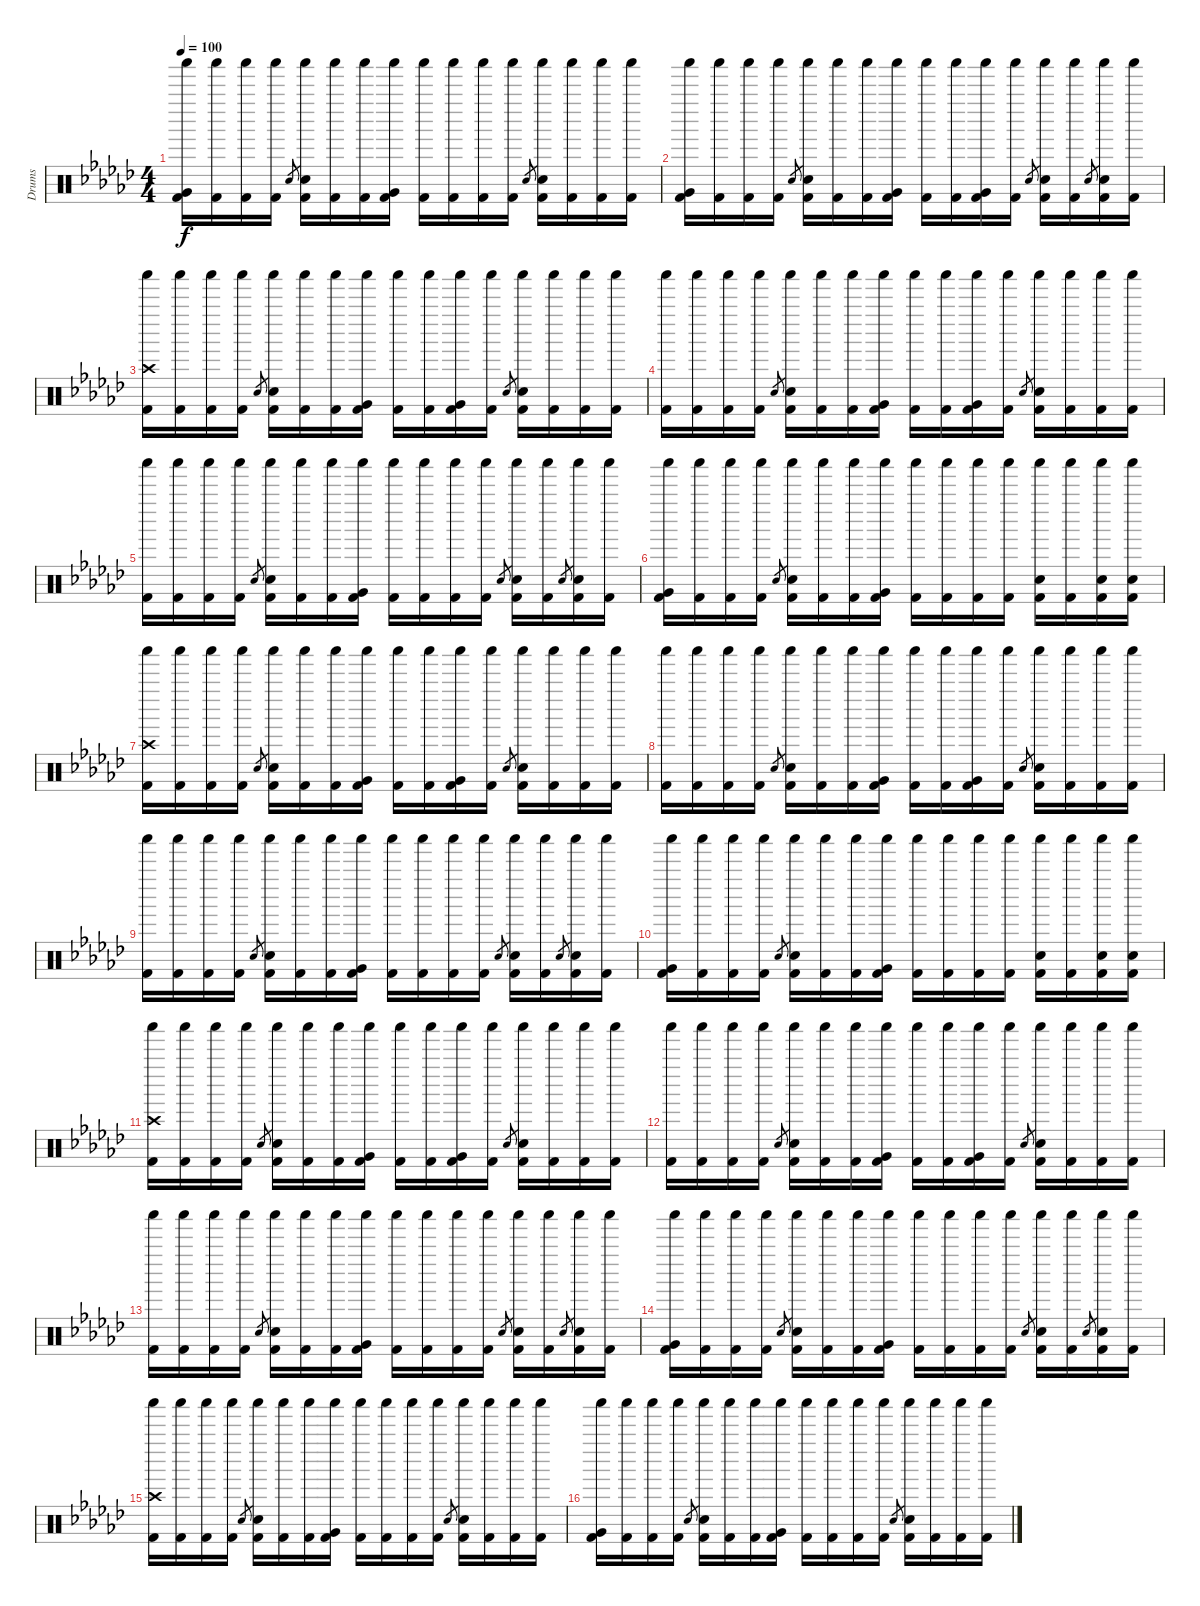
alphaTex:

\track ("Drums" "Drums") {instrument percussion}
\staff {score}
\articulation defaults
\ts (4 4)
\tempo 100
\clef neutral
\ks gb
("Shaker (hit)" "Very Low Tom (hit)" "Kick (hit) 2").16{dy f} ("Shaker (hit)" "Kick (hit) 2").16 ("Shaker (hit)" "Kick (hit) 2").16 ("Shaker (hit)" "Kick (hit) 2").16 "Electric Snare (hit)".8{gr} ("Shaker (hit)" "Electric Snare (hit)" "Kick (hit) 2").16 ("Shaker (hit)" "Kick (hit) 2").16 ("Shaker (hit)" "Kick (hit) 2").16 ("Shaker (hit)" "Very Low Tom (hit)" "Kick (hit) 2").16 ("Shaker (hit)" "Kick (hit) 2").16 ("Shaker (hit)" "Kick (hit) 2").16 ("Shaker (hit)" "Kick (hit) 2").16 ("Shaker (hit)" "Kick (hit) 2").16 "Electric Snare (hit)".8{gr} ("Shaker (hit)" "Electric Snare (hit)" "Kick (hit) 2").16 ("Shaker (hit)" "Kick (hit) 2").16 ("Shaker (hit)" "Kick (hit) 2").16 ("Shaker (hit)" "Kick (hit) 2").16 |
("Shaker (hit)" "Very Low Tom (hit)" "Kick (hit) 2").16 ("Shaker (hit)" "Kick (hit) 2").16 ("Shaker (hit)" "Kick (hit) 2").16 ("Shaker (hit)" "Kick (hit) 2").16 "Electric Snare (hit)".8{gr} ("Shaker (hit)" "Electric Snare (hit)" "Kick (hit) 2").16 ("Shaker (hit)" "Kick (hit) 2").16 ("Shaker (hit)" "Kick (hit) 2").16 ("Shaker (hit)" "Very Low Tom (hit)" "Kick (hit) 2").16 ("Shaker (hit)" "Kick (hit) 2").16 ("Shaker (hit)" "Kick (hit) 2").16 ("Shaker (hit)" "Very Low Tom (hit)" "Kick (hit) 2").16 ("Shaker (hit)" "Kick (hit) 2").16 "Electric Snare (hit)".8{gr} ("Shaker (hit)" "Electric Snare (hit)" "Kick (hit) 2").16 ("Shaker (hit)" "Kick (hit) 2").16 "Electric Snare (hit)".8{gr} ("Shaker (hit)" "Electric Snare (hit)" "Kick (hit) 2").16 ("Shaker (hit)" "Kick (hit) 2").16 |
("Crash high (hit)" "Shaker (hit)" "Kick (hit) 2").16 ("Shaker (hit)" "Kick (hit) 2").16 ("Shaker (hit)" "Kick (hit) 2").16 ("Shaker (hit)" "Kick (hit) 2").16 "Electric Snare (hit)".8{gr} ("Shaker (hit)" "Electric Snare (hit)" "Kick (hit) 2").16 ("Shaker (hit)" "Kick (hit) 2").16 ("Shaker (hit)" "Kick (hit) 2").16 ("Shaker (hit)" "Very Low Tom (hit)" "Kick (hit) 2").16 ("Shaker (hit)" "Kick (hit) 2").16 ("Shaker (hit)" "Kick (hit) 2").16 ("Shaker (hit)" "Very Low Tom (hit)" "Kick (hit) 2").16 ("Shaker (hit)" "Kick (hit) 2").16 "Electric Snare (hit)".8{gr} ("Shaker (hit)" "Electric Snare (hit)" "Kick (hit) 2").16 ("Shaker (hit)" "Kick (hit) 2").16 ("Shaker (hit)" "Kick (hit) 2").16 ("Shaker (hit)" "Kick (hit) 2").16 |
("Shaker (hit)" "Kick (hit) 2").16 ("Shaker (hit)" "Kick (hit) 2").16 ("Shaker (hit)" "Kick (hit) 2").16 ("Shaker (hit)" "Kick (hit) 2").16 "Electric Snare (hit)".8{gr} ("Shaker (hit)" "Electric Snare (hit)" "Kick (hit) 2").16 ("Shaker (hit)" "Kick (hit) 2").16 ("Shaker (hit)" "Kick (hit) 2").16 ("Shaker (hit)" "Very Low Tom (hit)" "Kick (hit) 2").16 ("Shaker (hit)" "Kick (hit) 2").16 ("Shaker (hit)" "Kick (hit) 2").16 ("Shaker (hit)" "Very Low Tom (hit)" "Kick (hit) 2").16 ("Shaker (hit)" "Kick (hit) 2").16 "Electric Snare (hit)".8{gr} ("Shaker (hit)" "Electric Snare (hit)" "Kick (hit) 2").16 ("Shaker (hit)" "Kick (hit) 2").16 ("Shaker (hit)" "Kick (hit) 2").16 ("Shaker (hit)" "Kick (hit) 2").16 |
("Shaker (hit)" "Kick (hit) 2").16 ("Shaker (hit)" "Kick (hit) 2").16 ("Shaker (hit)" "Kick (hit) 2").16 ("Shaker (hit)" "Kick (hit) 2").16 "Electric Snare (hit)".8{gr} ("Shaker (hit)" "Electric Snare (hit)" "Kick (hit) 2").16 ("Shaker (hit)" "Kick (hit) 2").16 ("Shaker (hit)" "Kick (hit) 2").16 ("Shaker (hit)" "Very Low Tom (hit)" "Kick (hit) 2").16 ("Shaker (hit)" "Kick (hit) 2").16 ("Shaker (hit)" "Kick (hit) 2").16 ("Shaker (hit)" "Kick (hit) 2").16 ("Shaker (hit)" "Kick (hit) 2").16 "Electric Snare (hit)".8{gr} ("Shaker (hit)" "Electric Snare (hit)" "Kick (hit) 2").16 ("Shaker (hit)" "Kick (hit) 2").16 "Electric Snare (hit)".8{gr} ("Shaker (hit)" "Electric Snare (hit)" "Kick (hit) 2").16 ("Shaker (hit)" "Kick (hit) 2").16 |
("Shaker (hit)" "Very Low Tom (hit)" "Kick (hit) 2").16 ("Shaker (hit)" "Kick (hit) 2").16 ("Shaker (hit)" "Kick (hit) 2").16 ("Shaker (hit)" "Kick (hit) 2").16 "Electric Snare (hit)".8{gr} ("Shaker (hit)" "Electric Snare (hit)" "Kick (hit) 2").16 ("Shaker (hit)" "Kick (hit) 2").16 ("Shaker (hit)" "Kick (hit) 2").16 ("Shaker (hit)" "Very Low Tom (hit)" "Kick (hit) 2").16 ("Shaker (hit)" "Kick (hit) 2").16 ("Shaker (hit)" "Kick (hit) 2").16 ("Shaker (hit)" "Kick (hit) 2").16 ("Shaker (hit)" "Kick (hit) 2").16 ("Shaker (hit)" "Electric Snare (hit)" "Kick (hit) 2").16 ("Shaker (hit)" "Kick (hit) 2").16 ("Shaker (hit)" "Electric Snare (hit)" "Kick (hit) 2").16 ("Shaker (hit)" "Electric Snare (hit)" "Kick (hit) 2").16 |
("Crash high (hit)" "Shaker (hit)" "Kick (hit) 2").16 ("Shaker (hit)" "Kick (hit) 2").16 ("Shaker (hit)" "Kick (hit) 2").16 ("Shaker (hit)" "Kick (hit) 2").16 "Electric Snare (hit)".8{gr} ("Shaker (hit)" "Electric Snare (hit)" "Kick (hit) 2").16 ("Shaker (hit)" "Kick (hit) 2").16 ("Shaker (hit)" "Kick (hit) 2").16 ("Shaker (hit)" "Very Low Tom (hit)" "Kick (hit) 2").16 ("Shaker (hit)" "Kick (hit) 2").16 ("Shaker (hit)" "Kick (hit) 2").16 ("Shaker (hit)" "Very Low Tom (hit)" "Kick (hit) 2").16 ("Shaker (hit)" "Kick (hit) 2").16 "Electric Snare (hit)".8{gr} ("Shaker (hit)" "Electric Snare (hit)" "Kick (hit) 2").16 ("Shaker (hit)" "Kick (hit) 2").16 ("Shaker (hit)" "Kick (hit) 2").16 ("Shaker (hit)" "Kick (hit) 2").16 |
("Shaker (hit)" "Kick (hit) 2").16 ("Shaker (hit)" "Kick (hit) 2").16 ("Shaker (hit)" "Kick (hit) 2").16 ("Shaker (hit)" "Kick (hit) 2").16 "Electric Snare (hit)".8{gr} ("Shaker (hit)" "Electric Snare (hit)" "Kick (hit) 2").16 ("Shaker (hit)" "Kick (hit) 2").16 ("Shaker (hit)" "Kick (hit) 2").16 ("Shaker (hit)" "Very Low Tom (hit)" "Kick (hit) 2").16 ("Shaker (hit)" "Kick (hit) 2").16 ("Shaker (hit)" "Kick (hit) 2").16 ("Shaker (hit)" "Very Low Tom (hit)" "Kick (hit) 2").16 ("Shaker (hit)" "Kick (hit) 2").16 "Electric Snare (hit)".8{gr} ("Shaker (hit)" "Electric Snare (hit)" "Kick (hit) 2").16 ("Shaker (hit)" "Kick (hit) 2").16 ("Shaker (hit)" "Kick (hit) 2").16 ("Shaker (hit)" "Kick (hit) 2").16 |
("Shaker (hit)" "Kick (hit) 2").16 ("Shaker (hit)" "Kick (hit) 2").16 ("Shaker (hit)" "Kick (hit) 2").16 ("Shaker (hit)" "Kick (hit) 2").16 "Electric Snare (hit)".8{gr} ("Shaker (hit)" "Electric Snare (hit)" "Kick (hit) 2").16 ("Shaker (hit)" "Kick (hit) 2").16 ("Shaker (hit)" "Kick (hit) 2").16 ("Shaker (hit)" "Very Low Tom (hit)" "Kick (hit) 2").16 ("Shaker (hit)" "Kick (hit) 2").16 ("Shaker (hit)" "Kick (hit) 2").16 ("Shaker (hit)" "Kick (hit) 2").16 ("Shaker (hit)" "Kick (hit) 2").16 "Electric Snare (hit)".8{gr} ("Shaker (hit)" "Electric Snare (hit)" "Kick (hit) 2").16 ("Shaker (hit)" "Kick (hit) 2").16 "Electric Snare (hit)".8{gr} ("Shaker (hit)" "Electric Snare (hit)" "Kick (hit) 2").16 ("Shaker (hit)" "Kick (hit) 2").16 |
("Shaker (hit)" "Very Low Tom (hit)" "Kick (hit) 2").16 ("Shaker (hit)" "Kick (hit) 2").16 ("Shaker (hit)" "Kick (hit) 2").16 ("Shaker (hit)" "Kick (hit) 2").16 "Electric Snare (hit)".8{gr} ("Shaker (hit)" "Electric Snare (hit)" "Kick (hit) 2").16 ("Shaker (hit)" "Kick (hit) 2").16 ("Shaker (hit)" "Kick (hit) 2").16 ("Shaker (hit)" "Very Low Tom (hit)" "Kick (hit) 2").16 ("Shaker (hit)" "Kick (hit) 2").16 ("Shaker (hit)" "Kick (hit) 2").16 ("Shaker (hit)" "Kick (hit) 2").16 ("Shaker (hit)" "Kick (hit) 2").16 ("Shaker (hit)" "Electric Snare (hit)" "Kick (hit) 2").16 ("Shaker (hit)" "Kick (hit) 2").16 ("Shaker (hit)" "Electric Snare (hit)" "Kick (hit) 2").16 ("Shaker (hit)" "Electric Snare (hit)" "Kick (hit) 2").16 |
("Crash high (hit)" "Shaker (hit)" "Kick (hit) 2").16 ("Shaker (hit)" "Kick (hit) 2").16 ("Shaker (hit)" "Kick (hit) 2").16 ("Shaker (hit)" "Kick (hit) 2").16 "Electric Snare (hit)".8{gr} ("Shaker (hit)" "Electric Snare (hit)" "Kick (hit) 2").16 ("Shaker (hit)" "Kick (hit) 2").16 ("Shaker (hit)" "Kick (hit) 2").16 ("Shaker (hit)" "Very Low Tom (hit)" "Kick (hit) 2").16 ("Shaker (hit)" "Kick (hit) 2").16 ("Shaker (hit)" "Kick (hit) 2").16 ("Shaker (hit)" "Very Low Tom (hit)" "Kick (hit) 2").16 ("Shaker (hit)" "Kick (hit) 2").16 "Electric Snare (hit)".8{gr} ("Shaker (hit)" "Electric Snare (hit)" "Kick (hit) 2").16 ("Shaker (hit)" "Kick (hit) 2").16 ("Shaker (hit)" "Kick (hit) 2").16 ("Shaker (hit)" "Kick (hit) 2").16 |
("Shaker (hit)" "Kick (hit) 2").16 ("Shaker (hit)" "Kick (hit) 2").16 ("Shaker (hit)" "Kick (hit) 2").16 ("Shaker (hit)" "Kick (hit) 2").16 "Electric Snare (hit)".8{gr} ("Shaker (hit)" "Electric Snare (hit)" "Kick (hit) 2").16 ("Shaker (hit)" "Kick (hit) 2").16 ("Shaker (hit)" "Kick (hit) 2").16 ("Shaker (hit)" "Very Low Tom (hit)" "Kick (hit) 2").16 ("Shaker (hit)" "Kick (hit) 2").16 ("Shaker (hit)" "Kick (hit) 2").16 ("Shaker (hit)" "Very Low Tom (hit)" "Kick (hit) 2").16 ("Shaker (hit)" "Kick (hit) 2").16 "Electric Snare (hit)".8{gr} ("Shaker (hit)" "Electric Snare (hit)" "Kick (hit) 2").16 ("Shaker (hit)" "Kick (hit) 2").16 ("Shaker (hit)" "Kick (hit) 2").16 ("Shaker (hit)" "Kick (hit) 2").16 |
("Shaker (hit)" "Kick (hit) 2").16 ("Shaker (hit)" "Kick (hit) 2").16 ("Shaker (hit)" "Kick (hit) 2").16 ("Shaker (hit)" "Kick (hit) 2").16 "Electric Snare (hit)".8{gr} ("Shaker (hit)" "Electric Snare (hit)" "Kick (hit) 2").16 ("Shaker (hit)" "Kick (hit) 2").16 ("Shaker (hit)" "Kick (hit) 2").16 ("Shaker (hit)" "Very Low Tom (hit)" "Kick (hit) 2").16 ("Shaker (hit)" "Kick (hit) 2").16 ("Shaker (hit)" "Kick (hit) 2").16 ("Shaker (hit)" "Kick (hit) 2").16 ("Shaker (hit)" "Kick (hit) 2").16 "Electric Snare (hit)".8{gr} ("Shaker (hit)" "Electric Snare (hit)" "Kick (hit) 2").16 ("Shaker (hit)" "Kick (hit) 2").16 "Electric Snare (hit)".8{gr} ("Shaker (hit)" "Electric Snare (hit)" "Kick (hit) 2").16 ("Shaker (hit)" "Kick (hit) 2").16 |
("Shaker (hit)" "Very Low Tom (hit)" "Kick (hit) 2").16 ("Shaker (hit)" "Kick (hit) 2").16 ("Shaker (hit)" "Kick (hit) 2").16 ("Shaker (hit)" "Kick (hit) 2").16 "Electric Snare (hit)".8{gr} ("Shaker (hit)" "Electric Snare (hit)" "Kick (hit) 2").16 ("Shaker (hit)" "Kick (hit) 2").16 ("Shaker (hit)" "Kick (hit) 2").16 ("Shaker (hit)" "Very Low Tom (hit)" "Kick (hit) 2").16 ("Shaker (hit)" "Kick (hit) 2").16 ("Shaker (hit)" "Kick (hit) 2").16 ("Shaker (hit)" "Kick (hit) 2").16 ("Shaker (hit)" "Kick (hit) 2").16 "Electric Snare (hit)".8{gr} ("Shaker (hit)" "Electric Snare (hit)" "Kick (hit) 2").16 ("Shaker (hit)" "Kick (hit) 2").16 "Electric Snare (hit)".8{gr} ("Shaker (hit)" "Electric Snare (hit)" "Kick (hit) 2").16 ("Shaker (hit)" "Kick (hit) 2").16 |
("Crash high (hit)" "Shaker (hit)" "Kick (hit) 2").16 ("Shaker (hit)" "Kick (hit) 2").16 ("Shaker (hit)" "Kick (hit) 2").16 ("Shaker (hit)" "Kick (hit) 2").16 "Electric Snare (hit)".8{gr} ("Shaker (hit)" "Electric Snare (hit)" "Kick (hit) 2").16 ("Shaker (hit)" "Kick (hit) 2").16 ("Shaker (hit)" "Kick (hit) 2").16 ("Shaker (hit)" "Very Low Tom (hit)" "Kick (hit) 2").16 ("Shaker (hit)" "Kick (hit) 2").16 ("Shaker (hit)" "Kick (hit) 2").16 ("Shaker (hit)" "Kick (hit) 2").16 ("Shaker (hit)" "Kick (hit) 2").16 "Electric Snare (hit)".8{gr} ("Shaker (hit)" "Electric Snare (hit)" "Kick (hit) 2").16 ("Shaker (hit)" "Kick (hit) 2").16 ("Shaker (hit)" "Kick (hit) 2").16 ("Shaker (hit)" "Kick (hit) 2").16 |
("Shaker (hit)" "Very Low Tom (hit)" "Kick (hit) 2").16 ("Shaker (hit)" "Kick (hit) 2").16 ("Shaker (hit)" "Kick (hit) 2").16 ("Shaker (hit)" "Kick (hit) 2").16 "Electric Snare (hit)".8{gr} ("Shaker (hit)" "Electric Snare (hit)" "Kick (hit) 2").16 ("Shaker (hit)" "Kick (hit) 2").16 ("Shaker (hit)" "Kick (hit) 2").16 ("Shaker (hit)" "Very Low Tom (hit)" "Kick (hit) 2").16 ("Shaker (hit)" "Kick (hit) 2").16 ("Shaker (hit)" "Kick (hit) 2").16 ("Shaker (hit)" "Kick (hit) 2").16 ("Shaker (hit)" "Kick (hit) 2").16 "Electric Snare (hit)".8{gr} ("Shaker (hit)" "Electric Snare (hit)" "Kick (hit) 2").16 ("Shaker (hit)" "Kick (hit) 2").16 ("Shaker (hit)" "Kick (hit) 2").16 ("Shaker (hit)" "Kick (hit) 2").16
